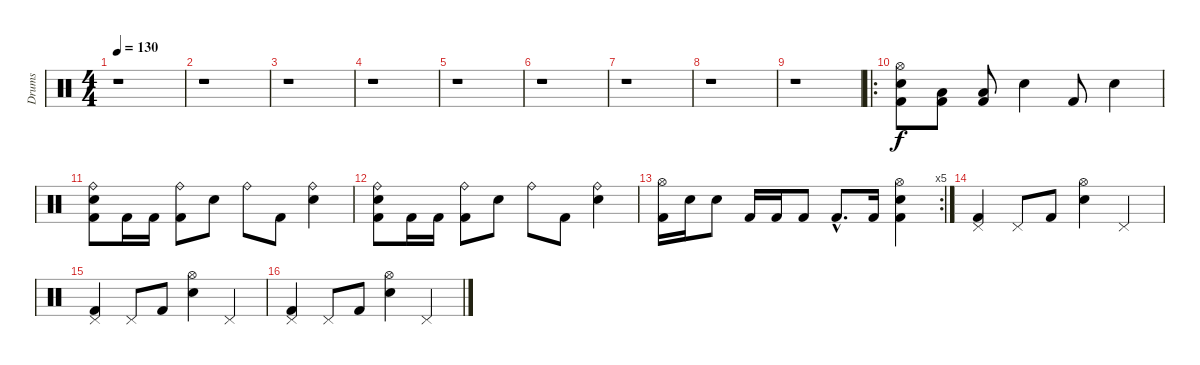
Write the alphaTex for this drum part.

\track ("Drums" "Drums") {instrument percussion}
\staff {score}
\articulation defaults
\ts (4 4)
\tempo 130
\clef neutral
\ks c
r.1{dy f} |
r.1 |
r.1 |
r.1 |
r.1 |
r.1 |
r.1 |
r.1 |
r.1 |
\ro
("Hi-Hat (open)" "Electric Snare (hit)" "Kick (hit) 2").8 ("Low Floor Tom (hit)" "Kick (hit) 2").8 ("Low Floor Tom (hit)" "Kick (hit) 2").8 "Electric Snare (hit)".4 "Kick (hit) 2".8 "Electric Snare (hit)".4 |
("Ride (bell)" "Electric Snare (hit)" "Kick (hit) 2").8 "Kick (hit) 2".16 "Kick (hit) 2".16 ("Ride (bell)" "Kick (hit) 2").8 "Electric Snare (hit)".8 "Ride (bell)".8 "Kick (hit) 2".8 ("Ride (bell)" "Electric Snare (hit)").4 |
("Ride (bell)" "Electric Snare (hit)" "Kick (hit) 2").8 "Kick (hit) 2".16 "Kick (hit) 2".16 ("Ride (bell)" "Kick (hit) 2").8 "Electric Snare (hit)".8 "Ride (bell)".8 "Kick (hit) 2".8 ("Ride (bell)" "Electric Snare (hit)").4 |
\rc 5
("Hi-Hat (open)" "Kick (hit) 2").16 "Electric Snare (hit)".16 "Electric Snare (hit)".8 "Kick (hit) 2".16 "Kick (hit) 2".16 "Kick (hit) 2".8 "Kick (hit) 2"{hac}.8{d} "Kick (hit) 2".16 ("Hi-Hat (open)" "Kick (hit) 2" "Electric Snare (hit)").4 |
("Pedal Hi-Hat (hit)" "Kick (hit) 2").4 "Pedal Hi-Hat (hit)".8 "Kick (hit) 2".8 ("Hi-Hat (open)" "Electric Snare (hit)").4 "Pedal Hi-Hat (hit)".4 |
("Pedal Hi-Hat (hit)" "Kick (hit) 2").4 "Pedal Hi-Hat (hit)".8 "Kick (hit) 2".8 ("Hi-Hat (open)" "Electric Snare (hit)").4 "Pedal Hi-Hat (hit)".4 |
("Pedal Hi-Hat (hit)" "Kick (hit) 2").4 "Pedal Hi-Hat (hit)".8 "Kick (hit) 2".8 ("Hi-Hat (open)" "Electric Snare (hit)").4 "Pedal Hi-Hat (hit)".4
